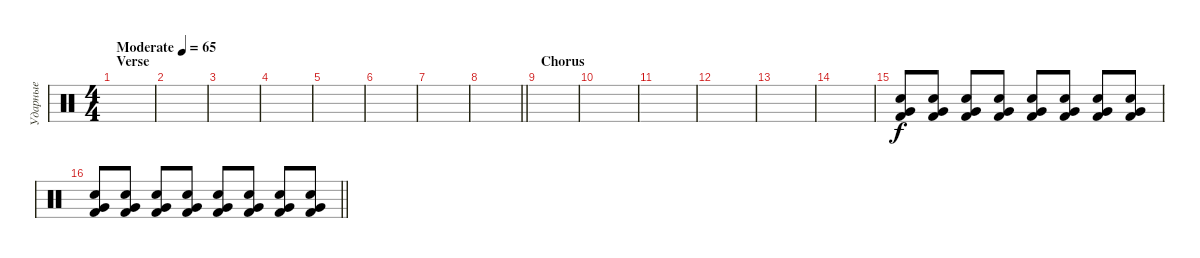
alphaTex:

\track ("Ударные" "Ударные") {instrument percussion}
\staff {score}
\articulation defaults
\ts (4 4)
\section ("" "Verse")
\tempo (65 "Moderate")
\clef neutral
\ks c
|
|
|
|
|
|
|
\barLineRight lightlight
|
\section ("" "Chorus")
|
|
|
|
|
|
("Very Low Tom (hit)" "Electric Snare (hit)" "Kick (hit) 2").8 ("Very Low Tom (hit)" "Electric Snare (hit)" "Kick (hit) 2").8 ("Very Low Tom (hit)" "Electric Snare (hit)" "Kick (hit) 2").8 ("Very Low Tom (hit)" "Electric Snare (hit)" "Kick (hit) 2").8 ("Very Low Tom (hit)" "Electric Snare (hit)" "Kick (hit) 2").8 ("Very Low Tom (hit)" "Electric Snare (hit)" "Kick (hit) 2").8 ("Very Low Tom (hit)" "Electric Snare (hit)" "Kick (hit) 2").8 ("Very Low Tom (hit)" "Electric Snare (hit)" "Kick (hit) 2").8 |
\barLineRight lightlight
("Very Low Tom (hit)" "Electric Snare (hit)" "Kick (hit) 2").8 ("Very Low Tom (hit)" "Electric Snare (hit)" "Kick (hit) 2").8 ("Very Low Tom (hit)" "Electric Snare (hit)" "Kick (hit) 2").8 ("Very Low Tom (hit)" "Electric Snare (hit)" "Kick (hit) 2").8 ("Very Low Tom (hit)" "Electric Snare (hit)" "Kick (hit) 2").8 ("Very Low Tom (hit)" "Electric Snare (hit)" "Kick (hit) 2").8 ("Very Low Tom (hit)" "Electric Snare (hit)" "Kick (hit) 2").8 ("Very Low Tom (hit)" "Electric Snare (hit)" "Kick (hit) 2").8
